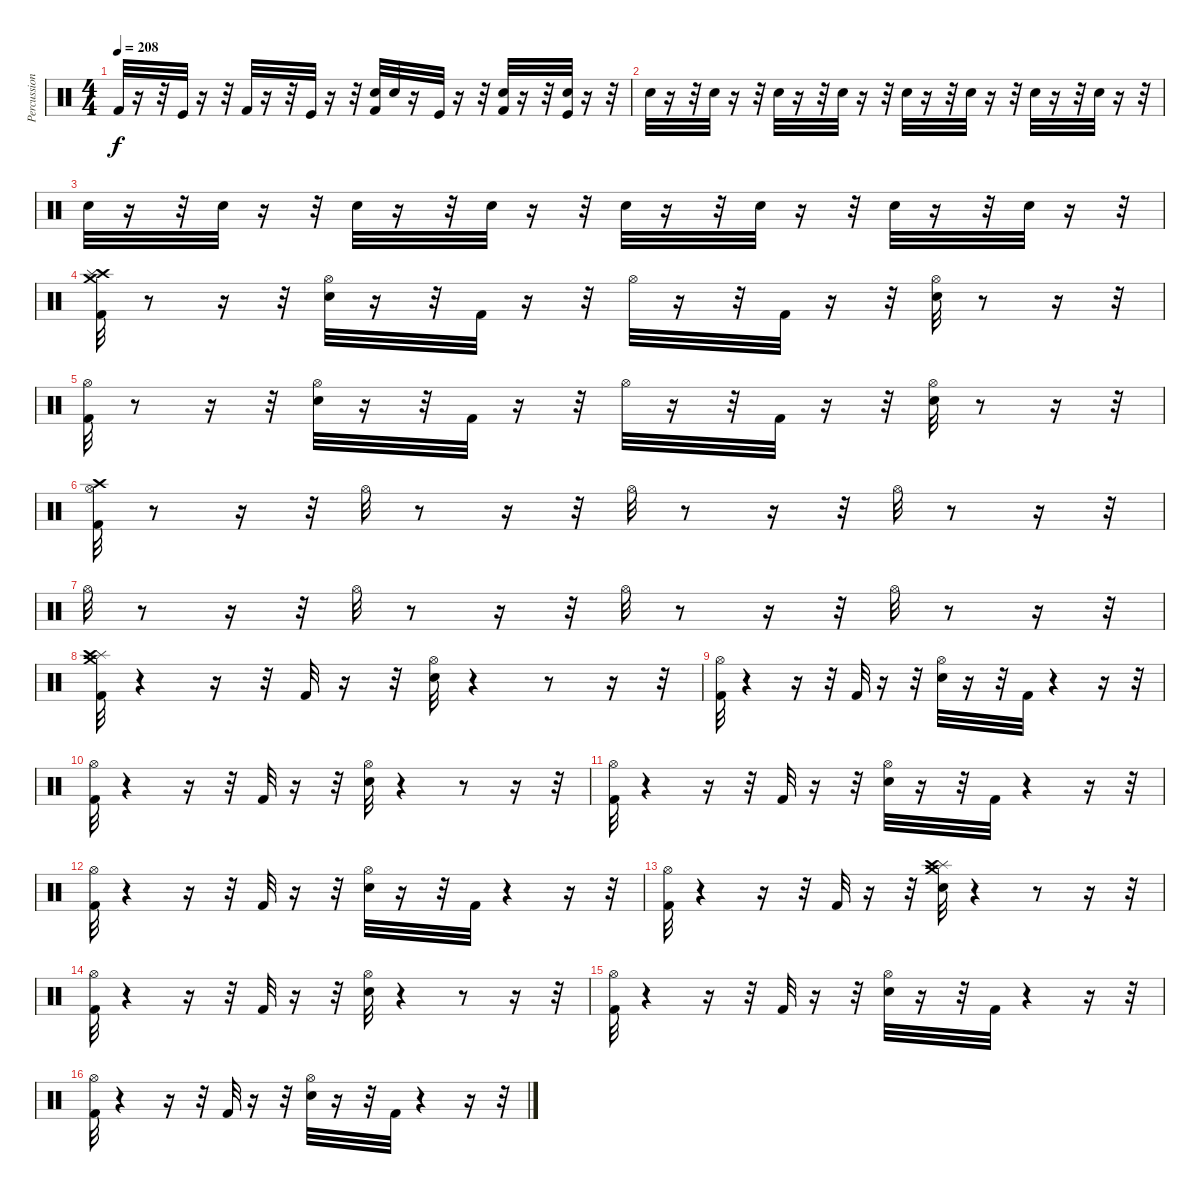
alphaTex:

\track ("Percussion" "Percussion") {instrument percussion}
\staff {score}
\articulation defaults
\ts (4 4)
\tempo 208
\clef neutral
\ks c "Kick (hit) 2".32{dy f}
r.16 r.32 "Kick (hit)".32 r.16 r.32 "Kick (hit) 2".32 r.16 r.32 "Kick (hit)".32 r.16 r.32 ("Snare (hit) 2" "Kick (hit) 2").32 "Snare (hit) 2".32 r.16 "Kick (hit)".32 r.16 r.32 ("Snare (hit) 2" "Kick (hit) 2").32 r.16 r.32 ("Snare (hit) 2" "Kick (hit)").32 r.16 r.32 |
"Snare (hit) 2".32 r.16 r.32 "Snare (hit) 2".32 r.16 r.32 "Snare (hit) 2".32 r.16 r.32 "Snare (hit) 2".32 r.16 r.32 "Snare (hit) 2".32 r.16 r.32 "Snare (hit) 2".32 r.16 r.32 "Snare (hit) 2".32 r.16 r.32 "Snare (hit) 2".32 r.16 r.32 |
"Snare (hit) 2".32 r.16 r.32 "Snare (hit) 2".32 r.16 r.32 "Snare (hit) 2".32 r.16 r.32 "Snare (hit) 2".32 r.16 r.32 "Snare (hit) 2".32 r.16 r.32 "Snare (hit) 2".32 r.16 r.32 "Snare (hit) 2".32 r.16 r.32 "Snare (hit) 2".32 r.16 r.32 |
("Kick (hit) 2" "Crash high (hit)" "Crash medium (hit)" "Splash (hit)").32 r.8 r.16 r.32 ("Snare (hit) 2" "Hi-Hat (open)").32 r.16 r.32 "Kick (hit) 2".32 r.16 r.32 "Hi-Hat (open)".32 r.16 r.32 "Kick (hit) 2".32 r.16 r.32 ("Snare (hit) 2" "Hi-Hat (open)").32 r.8 r.16 r.32 |
("Kick (hit) 2" "Hi-Hat (open)").32 r.8 r.16 r.32 ("Snare (hit) 2" "Hi-Hat (open)").32 r.16 r.32 "Kick (hit) 2".32 r.16 r.32 "Hi-Hat (open)".32 r.16 r.32 "Kick (hit) 2".32 r.16 r.32 ("Snare (hit) 2" "Hi-Hat (open)").32 r.8 r.16 r.32 |
("Hi-Hat (open)" "Crash high (hit)" "Kick (hit) 2").32 r.8 r.16 r.32 "Hi-Hat (open)".32 r.8 r.16 r.32 "Hi-Hat (open)".32 r.8 r.16 r.32 "Hi-Hat (open)".32 r.8 r.16 r.32 |
"Hi-Hat (open)".32 r.8 r.16 r.32 "Hi-Hat (open)".32 r.8 r.16 r.32 "Hi-Hat (open)".32 r.8 r.16 r.32 "Hi-Hat (open)".32 r.8 r.16 r.32 |
("Crash medium (hit)" "Splash (hit)" "Crash high (hit)" "Kick (hit) 2").32 r.4 r.16 r.32 "Kick (hit) 2".32 r.16 r.32 ("Snare (hit) 2" "Hi-Hat (open)").32 r.4 r.8 r.16 r.32 |
("Kick (hit) 2" "Hi-Hat (open)").32 r.4 r.16 r.32 "Kick (hit) 2".32 r.16 r.32 ("Snare (hit) 2" "Hi-Hat (open)").32 r.16 r.32 "Kick (hit) 2".32 r.4 r.16 r.32 |
("Kick (hit) 2" "Hi-Hat (open)").32 r.4 r.16 r.32 "Kick (hit) 2".32 r.16 r.32 ("Snare (hit) 2" "Hi-Hat (open)").32 r.4 r.8 r.16 r.32 |
("Kick (hit) 2" "Hi-Hat (open)").32 r.4 r.16 r.32 "Kick (hit) 2".32 r.16 r.32 ("Snare (hit) 2" "Hi-Hat (open)").32 r.16 r.32 "Kick (hit) 2".32 r.4 r.16 r.32 |
("Kick (hit) 2" "Hi-Hat (open)").32 r.4 r.16 r.32 "Kick (hit) 2".32 r.16 r.32 ("Snare (hit) 2" "Hi-Hat (open)").32 r.16 r.32 "Kick (hit) 2".32 r.4 r.16 r.32 |
("Kick (hit) 2" "Hi-Hat (open)").32 r.4 r.16 r.32 "Kick (hit) 2".32 r.16 r.32 ("Splash (hit)" "Crash medium (hit)" "Crash high (hit)" "Snare (hit) 2").32 r.4 r.8 r.16 r.32 |
("Kick (hit) 2" "Hi-Hat (open)").32 r.4 r.16 r.32 "Kick (hit) 2".32 r.16 r.32 ("Snare (hit) 2" "Hi-Hat (open)").32 r.4 r.8 r.16 r.32 |
("Kick (hit) 2" "Hi-Hat (open)").32 r.4 r.16 r.32 "Kick (hit) 2".32 r.16 r.32 ("Snare (hit) 2" "Hi-Hat (open)").32 r.16 r.32 "Kick (hit) 2".32 r.4 r.16 r.32 |
("Kick (hit) 2" "Hi-Hat (open)").32 r.4 r.16 r.32 "Kick (hit) 2".32 r.16 r.32 ("Snare (hit) 2" "Hi-Hat (open)").32 r.16 r.32 "Kick (hit) 2".32 r.4 r.16 r.32
